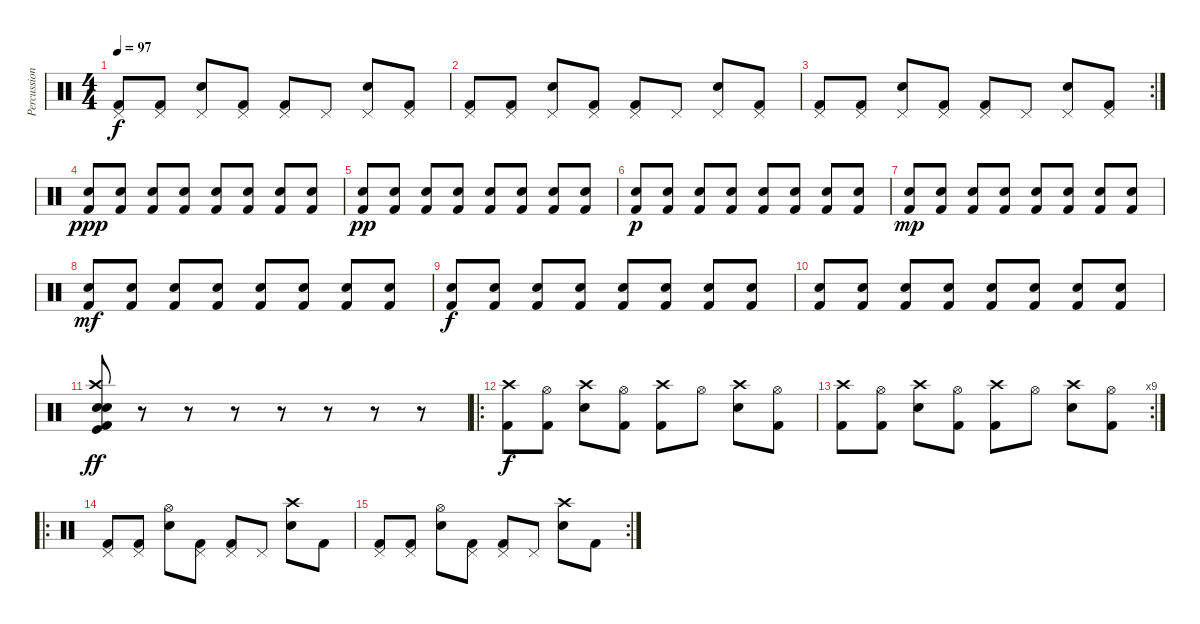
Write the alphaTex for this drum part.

\track ("Percussioni" "Percussion") {instrument percussion}
\staff {score}
\articulation defaults
\ts (4 4)
\tempo 97
\clef neutral
\ks c
("Pedal Hi-Hat (hit)" "Kick (hit) 2").8{dy f} ("Pedal Hi-Hat (hit)" "Kick (hit) 2").8 ("Pedal Hi-Hat (hit)" "Snare (hit) 2").8 ("Pedal Hi-Hat (hit)" "Kick (hit) 2").8 ("Pedal Hi-Hat (hit)" "Kick (hit) 2").8 "Pedal Hi-Hat (hit)".8 ("Pedal Hi-Hat (hit)" "Snare (hit) 2").8 ("Pedal Hi-Hat (hit)" "Kick (hit) 2").8 |
("Pedal Hi-Hat (hit)" "Kick (hit) 2").8 ("Pedal Hi-Hat (hit)" "Kick (hit) 2").8 ("Pedal Hi-Hat (hit)" "Snare (hit) 2").8 ("Pedal Hi-Hat (hit)" "Kick (hit) 2").8 ("Pedal Hi-Hat (hit)" "Kick (hit) 2").8 "Pedal Hi-Hat (hit)".8 ("Pedal Hi-Hat (hit)" "Snare (hit) 2").8 ("Pedal Hi-Hat (hit)" "Kick (hit) 2").8 |
\rc 2
("Pedal Hi-Hat (hit)" "Kick (hit) 2").8 ("Pedal Hi-Hat (hit)" "Kick (hit) 2").8 ("Pedal Hi-Hat (hit)" "Snare (hit) 2").8 ("Pedal Hi-Hat (hit)" "Kick (hit) 2").8 ("Pedal Hi-Hat (hit)" "Kick (hit) 2").8 "Pedal Hi-Hat (hit)".8 ("Pedal Hi-Hat (hit)" "Snare (hit) 2").8 ("Pedal Hi-Hat (hit)" "Kick (hit) 2").8 |
("Snare (hit) 2" "Kick (hit) 2").8{dy ppp} ("Snare (hit) 2" "Kick (hit) 2").8 ("Snare (hit) 2" "Kick (hit) 2").8 ("Snare (hit) 2" "Kick (hit) 2").8 ("Snare (hit) 2" "Kick (hit) 2").8 ("Snare (hit) 2" "Kick (hit) 2").8 ("Snare (hit) 2" "Kick (hit) 2").8 ("Snare (hit) 2" "Kick (hit) 2").8 |
("Snare (hit) 2" "Kick (hit) 2").8{dy pp} ("Snare (hit) 2" "Kick (hit) 2").8 ("Snare (hit) 2" "Kick (hit) 2").8 ("Snare (hit) 2" "Kick (hit) 2").8 ("Snare (hit) 2" "Kick (hit) 2").8 ("Snare (hit) 2" "Kick (hit) 2").8 ("Snare (hit) 2" "Kick (hit) 2").8 ("Snare (hit) 2" "Kick (hit) 2").8 |
("Snare (hit) 2" "Kick (hit) 2").8{dy p} ("Snare (hit) 2" "Kick (hit) 2").8 ("Snare (hit) 2" "Kick (hit) 2").8 ("Snare (hit) 2" "Kick (hit) 2").8 ("Snare (hit) 2" "Kick (hit) 2").8 ("Snare (hit) 2" "Kick (hit) 2").8 ("Snare (hit) 2" "Kick (hit) 2").8 ("Snare (hit) 2" "Kick (hit) 2").8 |
("Snare (hit) 2" "Kick (hit) 2").8{dy mp} ("Snare (hit) 2" "Kick (hit) 2").8 ("Snare (hit) 2" "Kick (hit) 2").8 ("Snare (hit) 2" "Kick (hit) 2").8 ("Snare (hit) 2" "Kick (hit) 2").8 ("Snare (hit) 2" "Kick (hit) 2").8 ("Snare (hit) 2" "Kick (hit) 2").8 ("Snare (hit) 2" "Kick (hit) 2").8 |
("Snare (hit) 2" "Kick (hit) 2").8{dy mf} ("Snare (hit) 2" "Kick (hit) 2").8 ("Snare (hit) 2" "Kick (hit) 2").8 ("Snare (hit) 2" "Kick (hit) 2").8 ("Snare (hit) 2" "Kick (hit) 2").8 ("Snare (hit) 2" "Kick (hit) 2").8 ("Snare (hit) 2" "Kick (hit) 2").8 ("Snare (hit) 2" "Kick (hit) 2").8 |
("Snare (hit) 2" "Kick (hit) 2").8{dy f} ("Snare (hit) 2" "Kick (hit) 2").8 ("Snare (hit) 2" "Kick (hit) 2").8 ("Snare (hit) 2" "Kick (hit) 2").8 ("Snare (hit) 2" "Kick (hit) 2").8 ("Snare (hit) 2" "Kick (hit) 2").8 ("Snare (hit) 2" "Kick (hit) 2").8 ("Snare (hit) 2" "Kick (hit) 2").8 |
("Snare (hit) 2" "Kick (hit) 2").8 ("Snare (hit) 2" "Kick (hit) 2").8 ("Snare (hit) 2" "Kick (hit) 2").8 ("Snare (hit) 2" "Kick (hit) 2").8 ("Snare (hit) 2" "Kick (hit) 2").8 ("Snare (hit) 2" "Kick (hit) 2").8 ("Snare (hit) 2" "Kick (hit) 2").8 ("Snare (hit) 2" "Kick (hit) 2").8 |
("Crash high (hit)" "Snare (hit) 2" "Snare (hit) 2" "Kick (hit)" "Kick (hit) 2").8{dy ff} r.8 r.8 r.8 r.8 r.8 r.8 r.8 |
\ro
("Crash high (hit)" "Kick (hit) 2").8{dy f} ("Hi-Hat (open)" "Kick (hit) 2").8 ("Crash high (hit)" "Snare (hit) 2").8 ("Hi-Hat (open)" "Kick (hit) 2").8 ("Crash high (hit)" "Kick (hit) 2").8 "Hi-Hat (open)".8 ("Crash high (hit)" "Snare (hit) 2").8 ("Hi-Hat (open)" "Kick (hit) 2").8 |
\rc 9
("Crash high (hit)" "Kick (hit) 2").8 ("Hi-Hat (open)" "Kick (hit) 2").8 ("Crash high (hit)" "Snare (hit) 2").8 ("Hi-Hat (open)" "Kick (hit) 2").8 ("Crash high (hit)" "Kick (hit) 2").8 "Hi-Hat (open)".8 ("Crash high (hit)" "Snare (hit) 2").8 ("Hi-Hat (open)" "Kick (hit) 2").8 |
\ro
("Pedal Hi-Hat (hit)" "Kick (hit) 2").8 ("Pedal Hi-Hat (hit)" "Kick (hit) 2").8 ("Hi-Hat (open)" "Snare (hit) 2").8 ("Pedal Hi-Hat (hit)" "Kick (hit) 2").8 ("Pedal Hi-Hat (hit)" "Kick (hit) 2").8 "Pedal Hi-Hat (hit)".8 ("Crash high (hit)" "Snare (hit) 2").8 "Kick (hit) 2".8 |
\rc 2
("Pedal Hi-Hat (hit)" "Kick (hit) 2").8 ("Pedal Hi-Hat (hit)" "Kick (hit) 2").8 ("Hi-Hat (open)" "Snare (hit) 2").8 ("Pedal Hi-Hat (hit)" "Kick (hit) 2").8 ("Pedal Hi-Hat (hit)" "Kick (hit) 2").8 "Pedal Hi-Hat (hit)".8 ("Crash high (hit)" "Snare (hit) 2").8 "Kick (hit) 2".8
